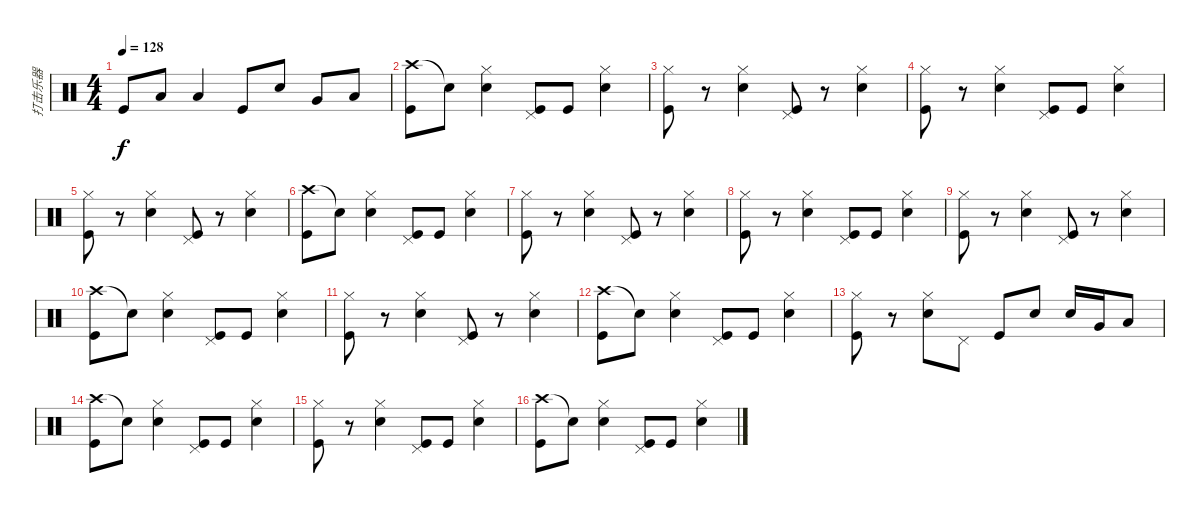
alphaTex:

\track ("打击乐器" "打击乐器") {instrument percussion}
\staff {score}
\articulation defaults
\ts (4 4)
\tempo 128
\clef neutral
\ks c "Kick (hit)".8{dy f} "Low Tom (hit)".8 "Low Tom (hit)".4 "Kick (hit)".8 "Snare (hit) 2".8 "Very Low Tom (hit)".8 "Low Floor Tom (hit)".8
|
("Crash high (hit)" "Kick (hit)").8 "Snare (hit)"{t}.8 ("Hi-Hat (closed)" "Snare (hit) 2").4 ("Pedal Hi-Hat (hit)" "Kick (hit)").8 "Kick (hit)".8 ("Hi-Hat (closed)" "Snare (hit) 2").4 |
("Hi-Hat (closed)" "Kick (hit)").8 r.8 ("Hi-Hat (closed)" "Snare (hit) 2").4 ("Pedal Hi-Hat (hit)" "Kick (hit)").8 r.8 ("Hi-Hat (closed)" "Snare (hit) 2").4 |
("Hi-Hat (closed)" "Kick (hit)").8 r.8 ("Hi-Hat (closed)" "Snare (hit) 2").4 ("Pedal Hi-Hat (hit)" "Kick (hit)").8 "Kick (hit)".8 ("Hi-Hat (closed)" "Snare (hit) 2").4 |
("Hi-Hat (closed)" "Kick (hit)").8 r.8 ("Hi-Hat (closed)" "Snare (hit) 2").4 ("Pedal Hi-Hat (hit)" "Kick (hit)").8 r.8 ("Hi-Hat (closed)" "Snare (hit) 2").4 |
("Crash high (hit)" "Kick (hit)").8 "Snare (hit)"{t}.8 ("Hi-Hat (closed)" "Snare (hit) 2").4 ("Pedal Hi-Hat (hit)" "Kick (hit)").8 "Kick (hit)".8 ("Hi-Hat (closed)" "Snare (hit) 2").4 |
("Hi-Hat (closed)" "Kick (hit)").8 r.8 ("Hi-Hat (closed)" "Snare (hit) 2").4 ("Pedal Hi-Hat (hit)" "Kick (hit)").8 r.8 ("Hi-Hat (closed)" "Snare (hit) 2").4 |
("Hi-Hat (closed)" "Kick (hit)").8 r.8 ("Hi-Hat (closed)" "Snare (hit) 2").4 ("Pedal Hi-Hat (hit)" "Kick (hit)").8 "Kick (hit)".8 ("Hi-Hat (closed)" "Snare (hit) 2").4 |
("Hi-Hat (closed)" "Kick (hit)").8 r.8 ("Hi-Hat (closed)" "Snare (hit) 2").4 ("Pedal Hi-Hat (hit)" "Kick (hit)").8 r.8 ("Hi-Hat (closed)" "Snare (hit) 2").4 |
("Crash high (hit)" "Kick (hit)").8 "Snare (hit)"{t}.8 ("Hi-Hat (closed)" "Snare (hit) 2").4 ("Pedal Hi-Hat (hit)" "Kick (hit)").8 "Kick (hit)".8 ("Hi-Hat (closed)" "Snare (hit) 2").4 |
("Hi-Hat (closed)" "Kick (hit)").8 r.8 ("Hi-Hat (closed)" "Snare (hit) 2").4 ("Pedal Hi-Hat (hit)" "Kick (hit)").8 r.8 ("Hi-Hat (closed)" "Snare (hit) 2").4 |
("Crash high (hit)" "Kick (hit)").8 "Snare (hit)"{t}.8 ("Hi-Hat (closed)" "Snare (hit) 2").4 ("Pedal Hi-Hat (hit)" "Kick (hit)").8 "Kick (hit)".8 ("Hi-Hat (closed)" "Snare (hit) 2").4 |
("Hi-Hat (closed)" "Kick (hit)").8 r.8 ("Hi-Hat (closed)" "Snare (hit) 2").8 "Pedal Hi-Hat (hit)".8 "Kick (hit)".8 "Snare (hit) 2".8 "Snare (hit) 2".16 "Very Low Tom (hit)".16 "Low Floor Tom (hit)".8 |
("Crash high (hit)" "Kick (hit)").8 "Snare (hit)"{t}.8 ("Hi-Hat (closed)" "Snare (hit) 2").4 ("Pedal Hi-Hat (hit)" "Kick (hit)").8 "Kick (hit)".8 ("Hi-Hat (closed)" "Snare (hit) 2").4 |
("Hi-Hat (closed)" "Kick (hit)").8 r.8 ("Hi-Hat (closed)" "Snare (hit) 2").4 ("Pedal Hi-Hat (hit)" "Kick (hit)").8 "Kick (hit)".8 ("Hi-Hat (closed)" "Snare (hit) 2").4 |
("Crash high (hit)" "Kick (hit)").8 "Snare (hit)"{t}.8 ("Hi-Hat (closed)" "Snare (hit) 2").4 ("Pedal Hi-Hat (hit)" "Kick (hit)").8 "Kick (hit)".8 ("Hi-Hat (closed)" "Snare (hit) 2").4
